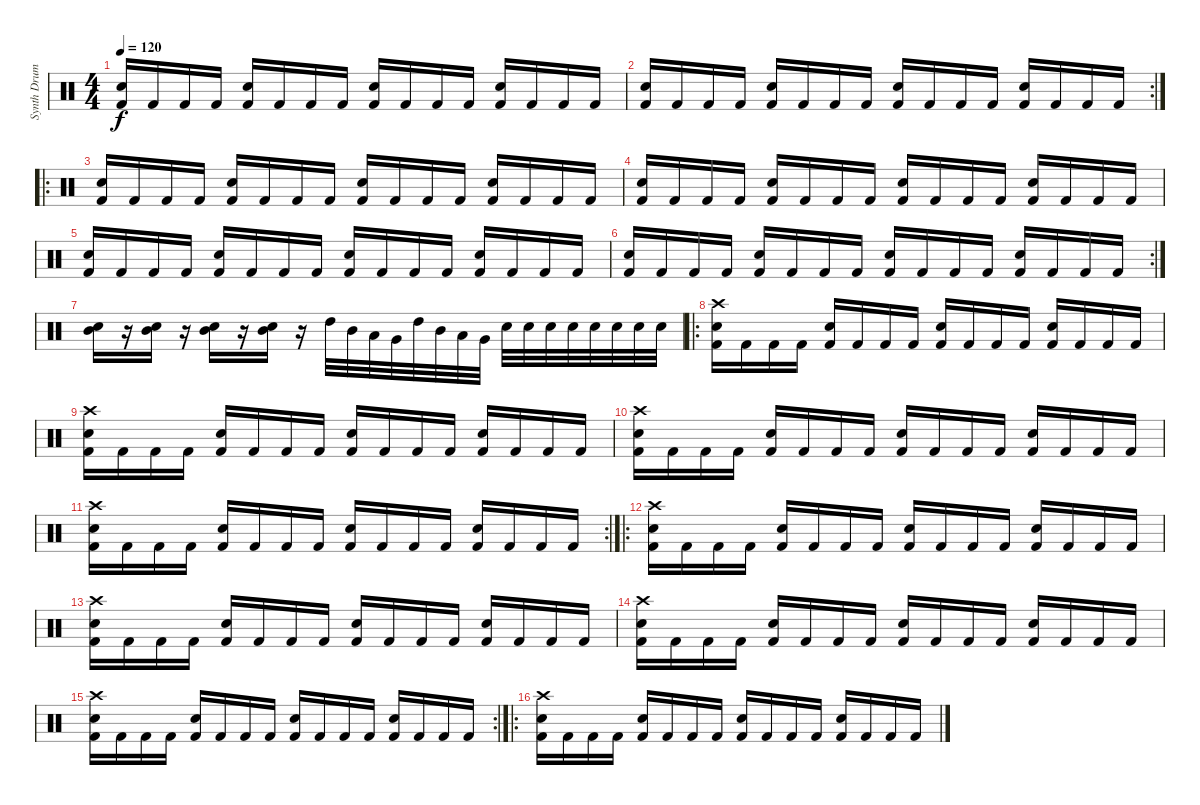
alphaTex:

\track ("Synth Drums" "Synth Drum") {instrument percussion}
\staff {score}
\articulation defaults
\ts (4 4)
\tempo 120
\clef neutral
\ks c
("Electric Snare (hit)" "Kick (hit) 2").16{dy f} "Kick (hit) 2".16 "Kick (hit) 2".16 "Kick (hit) 2".16 ("Electric Snare (hit)" "Kick (hit) 2").16 "Kick (hit) 2".16 "Kick (hit) 2".16 "Kick (hit) 2".16 ("Electric Snare (hit)" "Kick (hit) 2").16 "Kick (hit) 2".16 "Kick (hit) 2".16 "Kick (hit) 2".16 ("Electric Snare (hit)" "Kick (hit) 2").16 "Kick (hit) 2".16 "Kick (hit) 2".16 "Kick (hit) 2".16 |
\rc 2
("Electric Snare (hit)" "Kick (hit) 2").16 "Kick (hit) 2".16 "Kick (hit) 2".16 "Kick (hit) 2".16 ("Electric Snare (hit)" "Kick (hit) 2").16 "Kick (hit) 2".16 "Kick (hit) 2".16 "Kick (hit) 2".16 ("Electric Snare (hit)" "Kick (hit) 2").16 "Kick (hit) 2".16 "Kick (hit) 2".16 "Kick (hit) 2".16 ("Electric Snare (hit)" "Kick (hit) 2").16 "Kick (hit) 2".16 "Kick (hit) 2".16 "Kick (hit) 2".16 |
\ro
("Electric Snare (hit)" "Kick (hit) 2").16 "Kick (hit) 2".16 "Kick (hit) 2".16 "Kick (hit) 2".16 ("Electric Snare (hit)" "Kick (hit) 2").16 "Kick (hit) 2".16 "Kick (hit) 2".16 "Kick (hit) 2".16 ("Electric Snare (hit)" "Kick (hit) 2").16 "Kick (hit) 2".16 "Kick (hit) 2".16 "Kick (hit) 2".16 ("Electric Snare (hit)" "Kick (hit) 2").16 "Kick (hit) 2".16 "Kick (hit) 2".16 "Kick (hit) 2".16 |
("Electric Snare (hit)" "Kick (hit) 2").16 "Kick (hit) 2".16 "Kick (hit) 2".16 "Kick (hit) 2".16 ("Electric Snare (hit)" "Kick (hit) 2").16 "Kick (hit) 2".16 "Kick (hit) 2".16 "Kick (hit) 2".16 ("Electric Snare (hit)" "Kick (hit) 2").16 "Kick (hit) 2".16 "Kick (hit) 2".16 "Kick (hit) 2".16 ("Electric Snare (hit)" "Kick (hit) 2").16 "Kick (hit) 2".16 "Kick (hit) 2".16 "Kick (hit) 2".16 |
("Electric Snare (hit)" "Kick (hit) 2").16 "Kick (hit) 2".16 "Kick (hit) 2".16 "Kick (hit) 2".16 ("Electric Snare (hit)" "Kick (hit) 2").16 "Kick (hit) 2".16 "Kick (hit) 2".16 "Kick (hit) 2".16 ("Electric Snare (hit)" "Kick (hit) 2").16 "Kick (hit) 2".16 "Kick (hit) 2".16 "Kick (hit) 2".16 ("Electric Snare (hit)" "Kick (hit) 2").16 "Kick (hit) 2".16 "Kick (hit) 2".16 "Kick (hit) 2".16 |
\rc 2
("Electric Snare (hit)" "Kick (hit) 2").16 "Kick (hit) 2".16 "Kick (hit) 2".16 "Kick (hit) 2".16 ("Electric Snare (hit)" "Kick (hit) 2").16 "Kick (hit) 2".16 "Kick (hit) 2".16 "Kick (hit) 2".16 ("Electric Snare (hit)" "Kick (hit) 2").16 "Kick (hit) 2".16 "Kick (hit) 2".16 "Kick (hit) 2".16 ("Electric Snare (hit)" "Kick (hit) 2").16 "Kick (hit) 2".16 "Kick (hit) 2".16 "Kick (hit) 2".16 |
("Electric Snare (hit)" "Mid Tom (hit)").16 r.16 ("Electric Snare (hit)" "Mid Tom (hit)").16 r.16 ("Electric Snare (hit)" "Mid Tom (hit)").16 r.16 ("Electric Snare (hit)" "Mid Tom (hit)").16 r.16 "High Tom (hit)".32 "Mid Tom (hit)".32 "Low Tom (hit)".32 "Very Low Tom (hit)".32 "High Tom (hit)".32 "Mid Tom (hit)".32 "Low Tom (hit)".32 "Very Low Tom (hit)".32 "Electric Snare (hit)".32 "Electric Snare (hit)".32 "Electric Snare (hit)".32 "Electric Snare (hit)".32 "Electric Snare (hit)".32 "Electric Snare (hit)".32 "Electric Snare (hit)".32 "Electric Snare (hit)".32 |
\ro
("Crash high (hit)" "Electric Snare (hit)" "Kick (hit) 2").16 "Kick (hit) 2".16 "Kick (hit) 2".16 "Kick (hit) 2".16 ("Electric Snare (hit)" "Kick (hit) 2").16 "Kick (hit) 2".16 "Kick (hit) 2".16 "Kick (hit) 2".16 ("Electric Snare (hit)" "Kick (hit) 2").16 "Kick (hit) 2".16 "Kick (hit) 2".16 "Kick (hit) 2".16 ("Electric Snare (hit)" "Kick (hit) 2").16 "Kick (hit) 2".16 "Kick (hit) 2".16 "Kick (hit) 2".16 |
("Crash high (hit)" "Electric Snare (hit)" "Kick (hit) 2").16 "Kick (hit) 2".16 "Kick (hit) 2".16 "Kick (hit) 2".16 ("Electric Snare (hit)" "Kick (hit) 2").16 "Kick (hit) 2".16 "Kick (hit) 2".16 "Kick (hit) 2".16 ("Electric Snare (hit)" "Kick (hit) 2").16 "Kick (hit) 2".16 "Kick (hit) 2".16 "Kick (hit) 2".16 ("Electric Snare (hit)" "Kick (hit) 2").16 "Kick (hit) 2".16 "Kick (hit) 2".16 "Kick (hit) 2".16 |
("Crash high (hit)" "Electric Snare (hit)" "Kick (hit) 2").16 "Kick (hit) 2".16 "Kick (hit) 2".16 "Kick (hit) 2".16 ("Electric Snare (hit)" "Kick (hit) 2").16 "Kick (hit) 2".16 "Kick (hit) 2".16 "Kick (hit) 2".16 ("Electric Snare (hit)" "Kick (hit) 2").16 "Kick (hit) 2".16 "Kick (hit) 2".16 "Kick (hit) 2".16 ("Electric Snare (hit)" "Kick (hit) 2").16 "Kick (hit) 2".16 "Kick (hit) 2".16 "Kick (hit) 2".16 |
\rc 2
("Crash high (hit)" "Electric Snare (hit)" "Kick (hit) 2").16 "Kick (hit) 2".16 "Kick (hit) 2".16 "Kick (hit) 2".16 ("Electric Snare (hit)" "Kick (hit) 2").16 "Kick (hit) 2".16 "Kick (hit) 2".16 "Kick (hit) 2".16 ("Electric Snare (hit)" "Kick (hit) 2").16 "Kick (hit) 2".16 "Kick (hit) 2".16 "Kick (hit) 2".16 ("Electric Snare (hit)" "Kick (hit) 2").16 "Kick (hit) 2".16 "Kick (hit) 2".16 "Kick (hit) 2".16 |
\ro
("Crash high (hit)" "Electric Snare (hit)" "Kick (hit) 2").16 "Kick (hit) 2".16 "Kick (hit) 2".16 "Kick (hit) 2".16 ("Electric Snare (hit)" "Kick (hit) 2").16 "Kick (hit) 2".16 "Kick (hit) 2".16 "Kick (hit) 2".16 ("Electric Snare (hit)" "Kick (hit) 2").16 "Kick (hit) 2".16 "Kick (hit) 2".16 "Kick (hit) 2".16 ("Electric Snare (hit)" "Kick (hit) 2").16 "Kick (hit) 2".16 "Kick (hit) 2".16 "Kick (hit) 2".16 |
("Crash high (hit)" "Electric Snare (hit)" "Kick (hit) 2").16 "Kick (hit) 2".16 "Kick (hit) 2".16 "Kick (hit) 2".16 ("Electric Snare (hit)" "Kick (hit) 2").16 "Kick (hit) 2".16 "Kick (hit) 2".16 "Kick (hit) 2".16 ("Electric Snare (hit)" "Kick (hit) 2").16 "Kick (hit) 2".16 "Kick (hit) 2".16 "Kick (hit) 2".16 ("Electric Snare (hit)" "Kick (hit) 2").16 "Kick (hit) 2".16 "Kick (hit) 2".16 "Kick (hit) 2".16 |
("Crash high (hit)" "Electric Snare (hit)" "Kick (hit) 2").16 "Kick (hit) 2".16 "Kick (hit) 2".16 "Kick (hit) 2".16 ("Electric Snare (hit)" "Kick (hit) 2").16 "Kick (hit) 2".16 "Kick (hit) 2".16 "Kick (hit) 2".16 ("Electric Snare (hit)" "Kick (hit) 2").16 "Kick (hit) 2".16 "Kick (hit) 2".16 "Kick (hit) 2".16 ("Electric Snare (hit)" "Kick (hit) 2").16 "Kick (hit) 2".16 "Kick (hit) 2".16 "Kick (hit) 2".16 |
\rc 2
("Crash high (hit)" "Electric Snare (hit)" "Kick (hit) 2").16 "Kick (hit) 2".16 "Kick (hit) 2".16 "Kick (hit) 2".16 ("Electric Snare (hit)" "Kick (hit) 2").16 "Kick (hit) 2".16 "Kick (hit) 2".16 "Kick (hit) 2".16 ("Electric Snare (hit)" "Kick (hit) 2").16 "Kick (hit) 2".16 "Kick (hit) 2".16 "Kick (hit) 2".16 ("Electric Snare (hit)" "Kick (hit) 2").16 "Kick (hit) 2".16 "Kick (hit) 2".16 "Kick (hit) 2".16 |
\ro
("Crash high (hit)" "Electric Snare (hit)" "Kick (hit) 2").16 "Kick (hit) 2".16 "Kick (hit) 2".16 "Kick (hit) 2".16 ("Electric Snare (hit)" "Kick (hit) 2").16 "Kick (hit) 2".16 "Kick (hit) 2".16 "Kick (hit) 2".16 ("Electric Snare (hit)" "Kick (hit) 2").16 "Kick (hit) 2".16 "Kick (hit) 2".16 "Kick (hit) 2".16 ("Electric Snare (hit)" "Kick (hit) 2").16 "Kick (hit) 2".16 "Kick (hit) 2".16 "Kick (hit) 2".16
